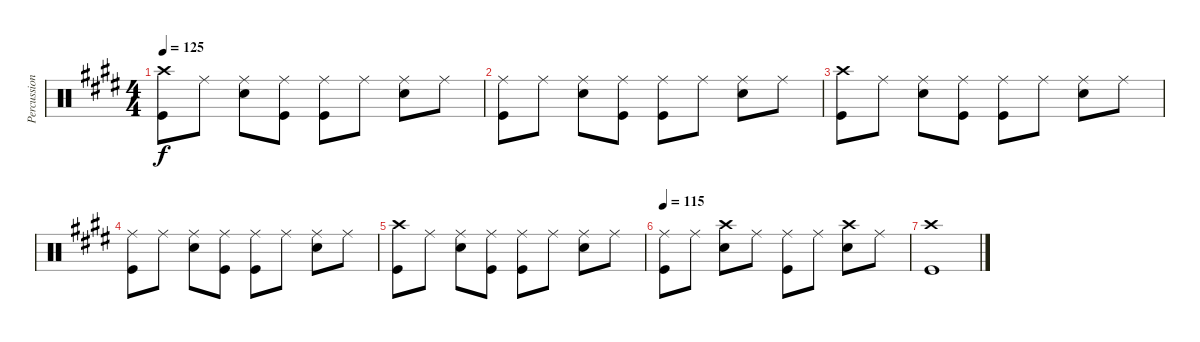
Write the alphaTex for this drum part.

\track ("Percussion" "Percussion") {instrument percussion}
\staff {score}
\articulation defaults
\ts (4 4)
\tempo 125
\clef neutral
\ks c#minor
("Crash high (hit)" "Kick (hit)").8{dy f} "Ride (middle)".8 ("Ride (middle)" "Electric Snare (hit)").8 ("Ride (middle)" "Kick (hit)").8 ("Ride (middle)" "Kick (hit)").8 "Ride (middle)".8 ("Ride (middle)" "Electric Snare (hit)").8 "Ride (middle)".8 |
("Ride (middle)" "Kick (hit)").8 "Ride (middle)".8 ("Ride (middle)" "Electric Snare (hit)").8 ("Ride (middle)" "Kick (hit)").8 ("Ride (middle)" "Kick (hit)").8 "Ride (middle)".8 ("Ride (middle)" "Electric Snare (hit)").8 "Ride (middle)".8 |
("Crash high (hit)" "Kick (hit)").8 "Ride (middle)".8 ("Ride (middle)" "Electric Snare (hit)").8 ("Ride (middle)" "Kick (hit)").8 ("Ride (middle)" "Kick (hit)").8 "Ride (middle)".8 ("Ride (middle)" "Electric Snare (hit)").8 "Ride (middle)".8 |
("Ride (middle)" "Kick (hit)").8 "Ride (middle)".8 ("Ride (middle)" "Electric Snare (hit)").8 ("Ride (middle)" "Kick (hit)").8 ("Ride (middle)" "Kick (hit)").8 "Ride (middle)".8 ("Ride (middle)" "Electric Snare (hit)").8 "Ride (middle)".8 |
("Crash high (hit)" "Kick (hit)").8 "Ride (middle)".8 ("Ride (middle)" "Electric Snare (hit)").8 ("Ride (middle)" "Kick (hit)").8 ("Ride (middle)" "Kick (hit)").8 "Ride (middle)".8 ("Ride (middle)" "Electric Snare (hit)").8 "Ride (middle)".8 |
\tempo 115
("Ride (middle)" "Kick (hit)").8 "Ride (middle)".8 ("Crash high (hit)" "Electric Snare (hit)").8 "Ride (middle)".8 ("Ride (middle)" "Kick (hit)").8 "Ride (middle)".8 ("Crash high (hit)" "Electric Snare (hit)").8 "Ride (middle)".8 |
("Crash high (hit)" "Kick (hit)").1
